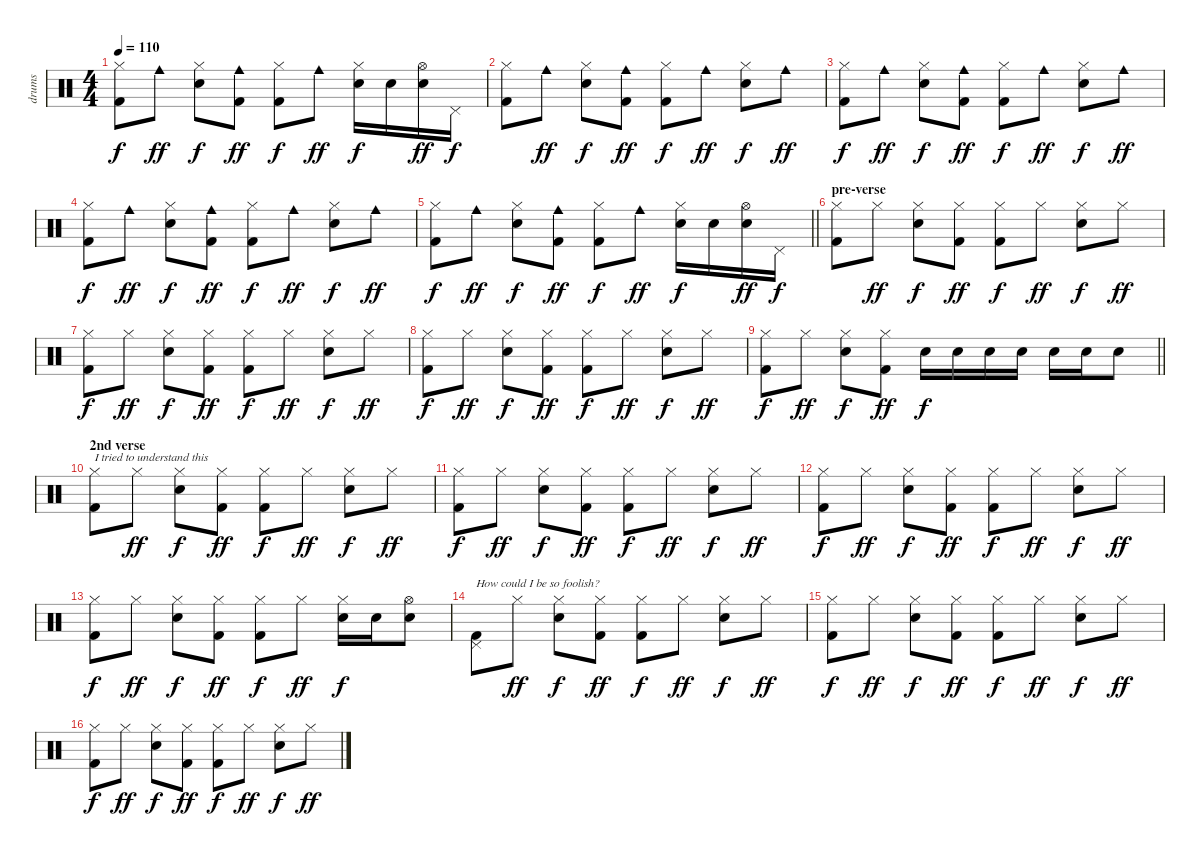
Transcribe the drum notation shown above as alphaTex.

\track ("drums" "drums") {instrument percussion}
\staff {score}
\articulation defaults
\ts (4 4)
\tempo 110
\clef neutral
\ks aminor
("Hi-Hat (closed)" "Kick (hit) 2").8{dy f} "Cowbell medium (hit)".8{dy ff} ("Hi-Hat (closed)" "Snare (hit) 2").8{dy f} ("Cowbell medium (hit)" "Kick (hit) 2").8{dy ff} ("Hi-Hat (closed)" "Kick (hit) 2").8{dy f} "Cowbell medium (hit)".8{dy ff} ("Hi-Hat (closed)" "Snare (hit) 2").16{dy f} "Snare (hit) 2".16 ("Hi-Hat (open)" "Snare (hit) 2").16{dy ff} "Pedal Hi-Hat (hit)".16{dy f} |
("Hi-Hat (closed)" "Kick (hit) 2").8 "Cowbell medium (hit)".8{dy ff} ("Hi-Hat (closed)" "Snare (hit) 2").8{dy f} ("Cowbell medium (hit)" "Kick (hit) 2").8{dy ff} ("Hi-Hat (closed)" "Kick (hit) 2").8{dy f} "Cowbell medium (hit)".8{dy ff} ("Hi-Hat (closed)" "Snare (hit) 2").8{dy f} "Cowbell medium (hit)".8{dy ff} |
("Hi-Hat (closed)" "Kick (hit) 2").8{dy f} "Cowbell medium (hit)".8{dy ff} ("Hi-Hat (closed)" "Snare (hit) 2").8{dy f} ("Cowbell medium (hit)" "Kick (hit) 2").8{dy ff} ("Hi-Hat (closed)" "Kick (hit) 2").8{dy f} "Cowbell medium (hit)".8{dy ff} ("Hi-Hat (closed)" "Snare (hit) 2").8{dy f} "Cowbell medium (hit)".8{dy ff} |
("Hi-Hat (closed)" "Kick (hit) 2").8{dy f} "Cowbell medium (hit)".8{dy ff} ("Hi-Hat (closed)" "Snare (hit) 2").8{dy f} ("Cowbell medium (hit)" "Kick (hit) 2").8{dy ff} ("Hi-Hat (closed)" "Kick (hit) 2").8{dy f} "Cowbell medium (hit)".8{dy ff} ("Hi-Hat (closed)" "Snare (hit) 2").8{dy f} "Cowbell medium (hit)".8{dy ff} |
\barLineRight lightlight
("Hi-Hat (closed)" "Kick (hit) 2").8{dy f} "Cowbell medium (hit)".8{dy ff} ("Hi-Hat (closed)" "Snare (hit) 2").8{dy f} ("Cowbell medium (hit)" "Kick (hit) 2").8{dy ff} ("Hi-Hat (closed)" "Kick (hit) 2").8{dy f} "Cowbell medium (hit)".8{dy ff} ("Hi-Hat (closed)" "Snare (hit) 2").16{dy f} "Snare (hit) 2".16 ("Hi-Hat (open)" "Snare (hit) 2").16{dy ff} "Pedal Hi-Hat (hit)".16{dy f} |
\section ("" "pre-verse")
("Hi-Hat (closed)" "Kick (hit) 2").8 "Hi-Hat (closed)".8{dy ff} ("Hi-Hat (closed)" "Snare (hit) 2").8{dy f} ("Hi-Hat (closed)" "Kick (hit) 2").8{dy ff} ("Hi-Hat (closed)" "Kick (hit) 2").8{dy f} "Hi-Hat (closed)".8{dy ff} ("Hi-Hat (closed)" "Snare (hit) 2").8{dy f} "Hi-Hat (closed)".8{dy ff} |
("Hi-Hat (closed)" "Kick (hit) 2").8{dy f} "Hi-Hat (closed)".8{dy ff} ("Hi-Hat (closed)" "Snare (hit) 2").8{dy f} ("Hi-Hat (closed)" "Kick (hit) 2").8{dy ff} ("Hi-Hat (closed)" "Kick (hit) 2").8{dy f} "Hi-Hat (closed)".8{dy ff} ("Hi-Hat (closed)" "Snare (hit) 2").8{dy f} "Hi-Hat (closed)".8{dy ff} |
("Hi-Hat (closed)" "Kick (hit) 2").8{dy f} "Hi-Hat (closed)".8{dy ff} ("Hi-Hat (closed)" "Snare (hit) 2").8{dy f} ("Hi-Hat (closed)" "Kick (hit) 2").8{dy ff} ("Hi-Hat (closed)" "Kick (hit) 2").8{dy f} "Hi-Hat (closed)".8{dy ff} ("Hi-Hat (closed)" "Snare (hit) 2").8{dy f} "Hi-Hat (closed)".8{dy ff} |
\barLineRight lightlight
("Hi-Hat (closed)" "Kick (hit) 2").8{dy f} "Hi-Hat (closed)".8{dy ff} ("Hi-Hat (closed)" "Snare (hit) 2").8{dy f} ("Hi-Hat (closed)" "Kick (hit) 2").8{dy ff} "Snare (hit) 2".16{dy f} "Snare (hit) 2".16 "Snare (hit) 2".16 "Snare (hit) 2".16 "Snare (hit) 2".16 "Snare (hit) 2".16 "Snare (hit) 2".8 |
\section ("" "2nd verse")
("Hi-Hat (closed)" "Kick (hit) 2").8{txt "I tried to understand this"} "Hi-Hat (closed)".8{dy ff} ("Hi-Hat (closed)" "Snare (hit) 2").8{dy f} ("Hi-Hat (closed)" "Kick (hit) 2").8{dy ff} ("Hi-Hat (closed)" "Kick (hit) 2").8{dy f} "Hi-Hat (closed)".8{dy ff} ("Hi-Hat (closed)" "Snare (hit) 2").8{dy f} "Hi-Hat (closed)".8{dy ff} |
("Hi-Hat (closed)" "Kick (hit) 2").8{dy f} "Hi-Hat (closed)".8{dy ff} ("Hi-Hat (closed)" "Snare (hit) 2").8{dy f} ("Hi-Hat (closed)" "Kick (hit) 2").8{dy ff} ("Hi-Hat (closed)" "Kick (hit) 2").8{dy f} "Hi-Hat (closed)".8{dy ff} ("Hi-Hat (closed)" "Snare (hit) 2").8{dy f} "Hi-Hat (closed)".8{dy ff} |
("Hi-Hat (closed)" "Kick (hit) 2").8{dy f} "Hi-Hat (closed)".8{dy ff} ("Hi-Hat (closed)" "Snare (hit) 2").8{dy f} ("Hi-Hat (closed)" "Kick (hit) 2").8{dy ff} ("Hi-Hat (closed)" "Kick (hit) 2").8{dy f} "Hi-Hat (closed)".8{dy ff} ("Hi-Hat (closed)" "Snare (hit) 2").8{dy f} "Hi-Hat (closed)".8{dy ff} |
("Hi-Hat (closed)" "Kick (hit) 2").8{dy f} "Hi-Hat (closed)".8{dy ff} ("Hi-Hat (closed)" "Snare (hit) 2").8{dy f} ("Hi-Hat (closed)" "Kick (hit) 2").8{dy ff} ("Hi-Hat (closed)" "Kick (hit) 2").8{dy f} "Hi-Hat (closed)".8{dy ff} ("Hi-Hat (closed)" "Snare (hit) 2").16{dy f} "Snare (hit) 2".16 ("Hi-Hat (open)" "Snare (hit) 2").8 |
("Pedal Hi-Hat (hit)" "Kick (hit) 2").8{txt "How could I be so foolish?"} "Hi-Hat (closed)".8{dy ff} ("Hi-Hat (closed)" "Snare (hit) 2").8{dy f} ("Hi-Hat (closed)" "Kick (hit) 2").8{dy ff} ("Hi-Hat (closed)" "Kick (hit) 2").8{dy f} "Hi-Hat (closed)".8{dy ff} ("Hi-Hat (closed)" "Snare (hit) 2").8{dy f} "Hi-Hat (closed)".8{dy ff} |
("Hi-Hat (closed)" "Kick (hit) 2").8{dy f} "Hi-Hat (closed)".8{dy ff} ("Hi-Hat (closed)" "Snare (hit) 2").8{dy f} ("Hi-Hat (closed)" "Kick (hit) 2").8{dy ff} ("Hi-Hat (closed)" "Kick (hit) 2").8{dy f} "Hi-Hat (closed)".8{dy ff} ("Hi-Hat (closed)" "Snare (hit) 2").8{dy f} "Hi-Hat (closed)".8{dy ff} |
("Hi-Hat (closed)" "Kick (hit) 2").8{dy f} "Hi-Hat (closed)".8{dy ff} ("Hi-Hat (closed)" "Snare (hit) 2").8{dy f} ("Hi-Hat (closed)" "Kick (hit) 2").8{dy ff} ("Hi-Hat (closed)" "Kick (hit) 2").8{dy f} "Hi-Hat (closed)".8{dy ff} ("Hi-Hat (closed)" "Snare (hit) 2").8{dy f} "Hi-Hat (closed)".8{dy ff}
